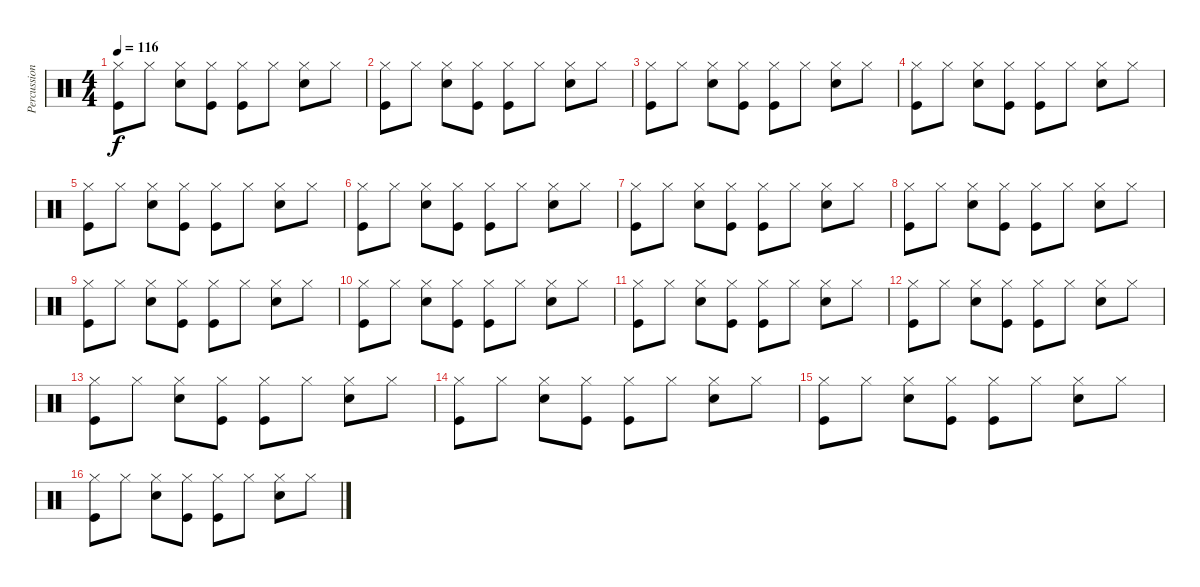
\track ("Percussion" "Percussion") {instrument percussion}
\staff {score}
\articulation defaults
\ts (4 4)
\tempo 116
\clef neutral
\ks c
("Kick (hit)" "Hi-Hat (closed)").8{dy f} "Hi-Hat (closed)".8 ("Snare (hit) 2" "Hi-Hat (closed)").8 ("Kick (hit)" "Hi-Hat (closed)").8 ("Kick (hit)" "Hi-Hat (closed)").8 "Hi-Hat (closed)".8 ("Snare (hit) 2" "Hi-Hat (closed)").8 "Hi-Hat (closed)".8 |
("Kick (hit)" "Hi-Hat (closed)").8 "Hi-Hat (closed)".8 ("Snare (hit) 2" "Hi-Hat (closed)").8 ("Kick (hit)" "Hi-Hat (closed)").8 ("Kick (hit)" "Hi-Hat (closed)").8 "Hi-Hat (closed)".8 ("Snare (hit) 2" "Hi-Hat (closed)").8 "Hi-Hat (closed)".8 |
("Kick (hit)" "Hi-Hat (closed)").8 "Hi-Hat (closed)".8 ("Snare (hit) 2" "Hi-Hat (closed)").8 ("Kick (hit)" "Hi-Hat (closed)").8 ("Kick (hit)" "Hi-Hat (closed)").8 "Hi-Hat (closed)".8 ("Snare (hit) 2" "Hi-Hat (closed)").8 "Hi-Hat (closed)".8 |
("Kick (hit)" "Hi-Hat (closed)").8 "Hi-Hat (closed)".8 ("Snare (hit) 2" "Hi-Hat (closed)").8 ("Kick (hit)" "Hi-Hat (closed)").8 ("Kick (hit)" "Hi-Hat (closed)").8 "Hi-Hat (closed)".8 ("Snare (hit) 2" "Hi-Hat (closed)").8 "Hi-Hat (closed)".8 |
("Kick (hit)" "Hi-Hat (closed)").8 "Hi-Hat (closed)".8 ("Snare (hit) 2" "Hi-Hat (closed)").8 ("Kick (hit)" "Hi-Hat (closed)").8 ("Kick (hit)" "Hi-Hat (closed)").8 "Hi-Hat (closed)".8 ("Snare (hit) 2" "Hi-Hat (closed)").8 "Hi-Hat (closed)".8 |
("Kick (hit)" "Hi-Hat (closed)").8 "Hi-Hat (closed)".8 ("Snare (hit) 2" "Hi-Hat (closed)").8 ("Kick (hit)" "Hi-Hat (closed)").8 ("Kick (hit)" "Hi-Hat (closed)").8 "Hi-Hat (closed)".8 ("Snare (hit) 2" "Hi-Hat (closed)").8 "Hi-Hat (closed)".8 |
("Kick (hit)" "Hi-Hat (closed)").8 "Hi-Hat (closed)".8 ("Snare (hit) 2" "Hi-Hat (closed)").8 ("Kick (hit)" "Hi-Hat (closed)").8 ("Kick (hit)" "Hi-Hat (closed)").8 "Hi-Hat (closed)".8 ("Snare (hit) 2" "Hi-Hat (closed)").8 "Hi-Hat (closed)".8 |
("Kick (hit)" "Hi-Hat (closed)").8 "Hi-Hat (closed)".8 ("Snare (hit) 2" "Hi-Hat (closed)").8 ("Kick (hit)" "Hi-Hat (closed)").8 ("Kick (hit)" "Hi-Hat (closed)").8 "Hi-Hat (closed)".8 ("Snare (hit) 2" "Hi-Hat (closed)").8 "Hi-Hat (closed)".8 |
("Kick (hit)" "Hi-Hat (closed)").8 "Hi-Hat (closed)".8 ("Snare (hit) 2" "Hi-Hat (closed)").8 ("Kick (hit)" "Hi-Hat (closed)").8 ("Kick (hit)" "Hi-Hat (closed)").8 "Hi-Hat (closed)".8 ("Snare (hit) 2" "Hi-Hat (closed)").8 "Hi-Hat (closed)".8 |
("Kick (hit)" "Hi-Hat (closed)").8 "Hi-Hat (closed)".8 ("Snare (hit) 2" "Hi-Hat (closed)").8 ("Kick (hit)" "Hi-Hat (closed)").8 ("Kick (hit)" "Hi-Hat (closed)").8 "Hi-Hat (closed)".8 ("Snare (hit) 2" "Hi-Hat (closed)").8 "Hi-Hat (closed)".8 |
("Kick (hit)" "Hi-Hat (closed)").8 "Hi-Hat (closed)".8 ("Snare (hit) 2" "Hi-Hat (closed)").8 ("Kick (hit)" "Hi-Hat (closed)").8 ("Kick (hit)" "Hi-Hat (closed)").8 "Hi-Hat (closed)".8 ("Snare (hit) 2" "Hi-Hat (closed)").8 "Hi-Hat (closed)".8 |
("Kick (hit)" "Hi-Hat (closed)").8 "Hi-Hat (closed)".8 ("Snare (hit) 2" "Hi-Hat (closed)").8 ("Kick (hit)" "Hi-Hat (closed)").8 ("Kick (hit)" "Hi-Hat (closed)").8 "Hi-Hat (closed)".8 ("Snare (hit) 2" "Hi-Hat (closed)").8 "Hi-Hat (closed)".8 |
("Kick (hit)" "Hi-Hat (closed)").8 "Hi-Hat (closed)".8 ("Snare (hit) 2" "Hi-Hat (closed)").8 ("Kick (hit)" "Hi-Hat (closed)").8 ("Kick (hit)" "Hi-Hat (closed)").8 "Hi-Hat (closed)".8 ("Snare (hit) 2" "Hi-Hat (closed)").8 "Hi-Hat (closed)".8 |
("Kick (hit)" "Hi-Hat (closed)").8 "Hi-Hat (closed)".8 ("Snare (hit) 2" "Hi-Hat (closed)").8 ("Kick (hit)" "Hi-Hat (closed)").8 ("Kick (hit)" "Hi-Hat (closed)").8 "Hi-Hat (closed)".8 ("Snare (hit) 2" "Hi-Hat (closed)").8 "Hi-Hat (closed)".8 |
("Kick (hit)" "Hi-Hat (closed)").8 "Hi-Hat (closed)".8 ("Snare (hit) 2" "Hi-Hat (closed)").8 ("Kick (hit)" "Hi-Hat (closed)").8 ("Kick (hit)" "Hi-Hat (closed)").8 "Hi-Hat (closed)".8 ("Snare (hit) 2" "Hi-Hat (closed)").8 "Hi-Hat (closed)".8 |
("Kick (hit)" "Hi-Hat (closed)").8 "Hi-Hat (closed)".8 ("Snare (hit) 2" "Hi-Hat (closed)").8 ("Kick (hit)" "Hi-Hat (closed)").8 ("Kick (hit)" "Hi-Hat (closed)").8 "Hi-Hat (closed)".8 ("Snare (hit) 2" "Hi-Hat (closed)").8 "Hi-Hat (closed)".8
